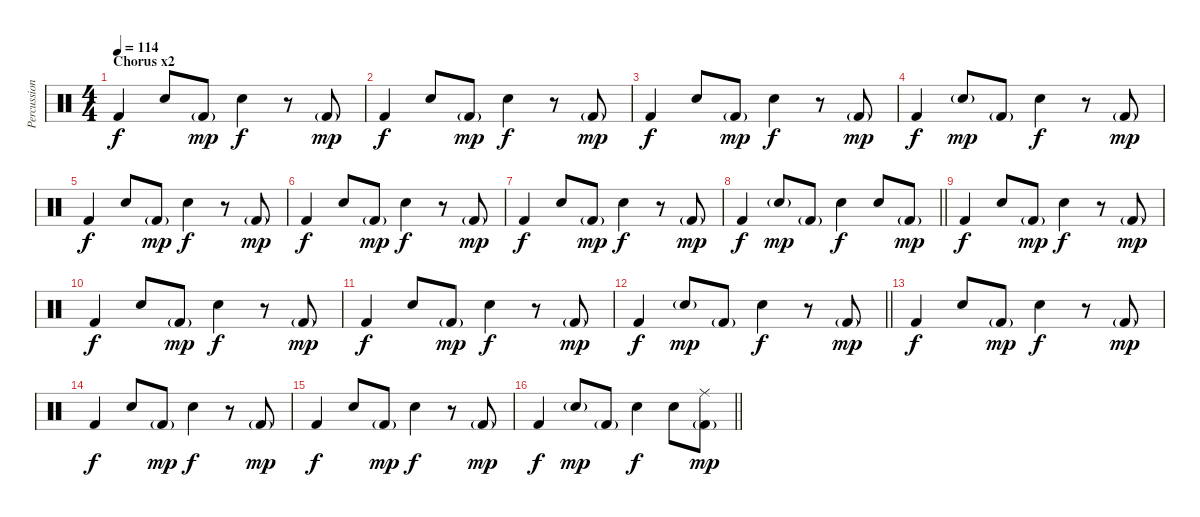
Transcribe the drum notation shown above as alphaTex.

\track ("Percussion" "Percussion") {instrument percussion}
\staff {score}
\articulation defaults
\ts (4 4)
\section ("" "Chorus x2")
\tempo 114
\clef neutral
\ks c "Kick (hit) 2".4{dy f} "Snare (hit) 2".8 "Kick (hit) 2"{g}.8{dy mp} "Snare (hit) 2".4{dy f}
r.8 "Kick (hit) 2"{g}.8{dy mp} |
"Kick (hit) 2".4{dy f} "Snare (hit) 2".8 "Kick (hit) 2"{g}.8{dy mp} "Snare (hit) 2".4{dy f} r.8 "Kick (hit) 2"{g}.8{dy mp} |
"Kick (hit) 2".4{dy f} "Snare (hit) 2".8 "Kick (hit) 2"{g}.8{dy mp} "Snare (hit) 2".4{dy f} r.8 "Kick (hit) 2"{g}.8{dy mp} |
"Kick (hit) 2".4{dy f} "Snare (hit) 2"{g}.8{dy mp} "Kick (hit) 2"{g}.8 "Snare (hit) 2".4{dy f} r.8 "Kick (hit) 2"{g}.8{dy mp} |
"Kick (hit) 2".4{dy f} "Snare (hit) 2".8 "Kick (hit) 2"{g}.8{dy mp} "Snare (hit) 2".4{dy f} r.8 "Kick (hit) 2"{g}.8{dy mp} |
"Kick (hit) 2".4{dy f} "Snare (hit) 2".8 "Kick (hit) 2"{g}.8{dy mp} "Snare (hit) 2".4{dy f} r.8 "Kick (hit) 2"{g}.8{dy mp} |
"Kick (hit) 2".4{dy f} "Snare (hit) 2".8 "Kick (hit) 2"{g}.8{dy mp} "Snare (hit) 2".4{dy f} r.8 "Kick (hit) 2"{g}.8{dy mp} |
\barLineRight lightlight "Kick (hit) 2".4{dy f} "Snare (hit) 2"{g}.8{dy mp} "Kick (hit) 2"{g}.8 "Snare (hit) 2".4{dy f} "Snare (hit) 2".8 "Kick (hit) 2"{g}.8{dy mp}
|
\section ("" "")
"Kick (hit) 2".4{dy f} "Snare (hit) 2".8 "Kick (hit) 2"{g}.8{dy mp} "Snare (hit) 2".4{dy f} r.8 "Kick (hit) 2"{g}.8{dy mp} |
"Kick (hit) 2".4{dy f} "Snare (hit) 2".8 "Kick (hit) 2"{g}.8{dy mp} "Snare (hit) 2".4{dy f} r.8 "Kick (hit) 2"{g}.8{dy mp} |
"Kick (hit) 2".4{dy f} "Snare (hit) 2".8 "Kick (hit) 2"{g}.8{dy mp} "Snare (hit) 2".4{dy f} r.8 "Kick (hit) 2"{g}.8{dy mp} |
\barLineRight lightlight "Kick (hit) 2".4{dy f} "Snare (hit) 2"{g}.8{dy mp} "Kick (hit) 2"{g}.8 "Snare (hit) 2".4{dy f}
r.8 "Kick (hit) 2"{g}.8{dy mp} |
"Kick (hit) 2".4{dy f} "Snare (hit) 2".8 "Kick (hit) 2"{g}.8{dy mp} "Snare (hit) 2".4{dy f} r.8 "Kick (hit) 2"{g}.8{dy mp} |
"Kick (hit) 2".4{dy f} "Snare (hit) 2".8 "Kick (hit) 2"{g}.8{dy mp} "Snare (hit) 2".4{dy f} r.8 "Kick (hit) 2"{g}.8{dy mp} |
"Kick (hit) 2".4{dy f} "Snare (hit) 2".8 "Kick (hit) 2"{g}.8{dy mp} "Snare (hit) 2".4{dy f} r.8 "Kick (hit) 2"{g}.8{dy mp} |
\barLineRight lightlight "Kick (hit) 2".4{dy f} "Snare (hit) 2"{g}.8{dy mp} "Kick (hit) 2"{g}.8 "Snare (hit) 2".4{dy f} "Snare (hit) 2".8
("Ride (middle)" "Kick (hit) 2"{g}).8{dy mp}
